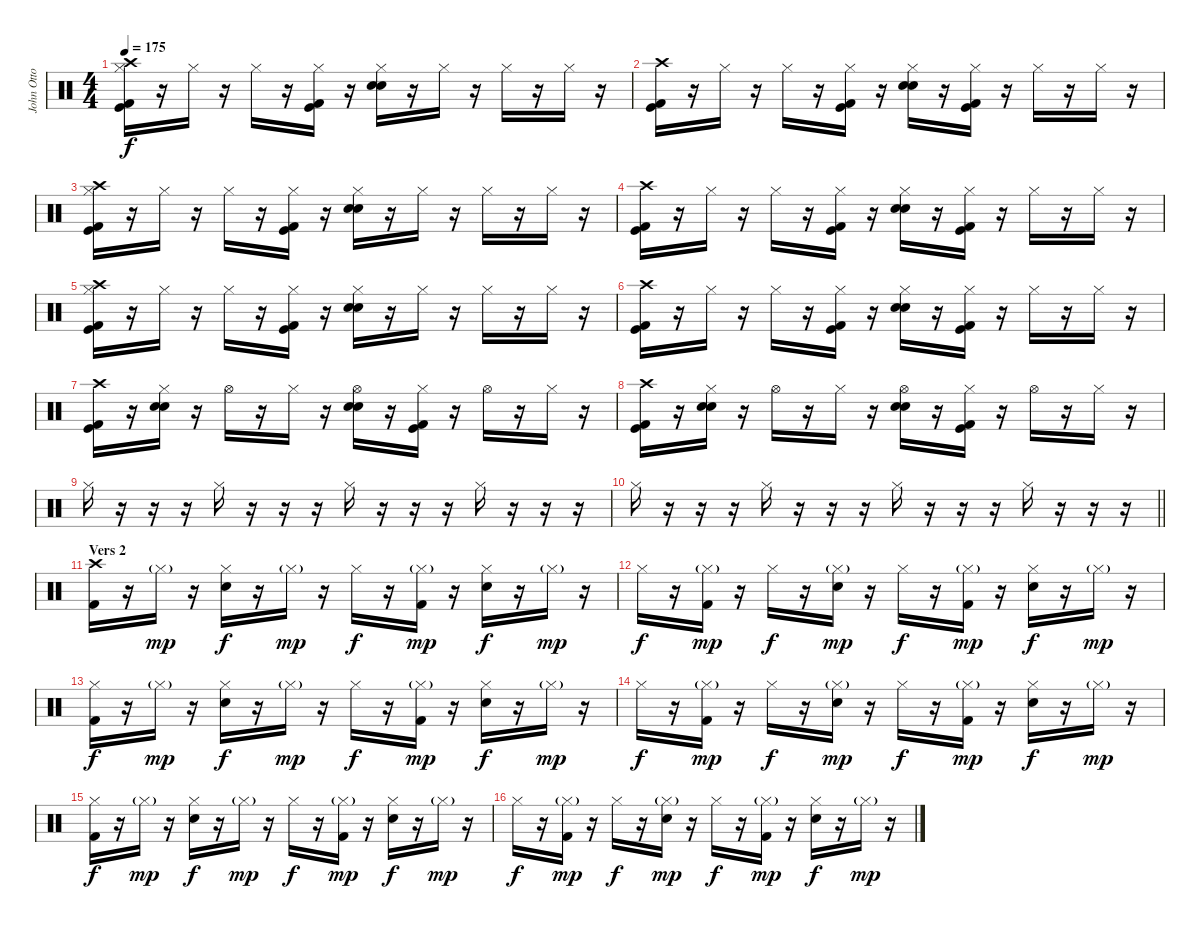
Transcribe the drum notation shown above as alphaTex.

\track ("John Otto" "John Otto") {instrument percussion}
\staff {score}
\articulation defaults
\ts (4 4)
\tempo 175
\clef neutral
\ks c
("Crash high (hit)" "Hi-Hat (closed)" "Kick (hit) 2" "Kick (hit)").16{dy f} r.16 "Hi-Hat (closed)".16 r.16 "Hi-Hat (closed)".16 r.16 ("Hi-Hat (closed)" "Kick (hit) 2" "Kick (hit)").16 r.16 ("Hi-Hat (closed)" "Electric Snare (hit)" "Snare (hit) 2").16 r.16 "Hi-Hat (closed)".16 r.16 "Hi-Hat (closed)".16 r.16 "Hi-Hat (closed)".16 r.16 |
("Crash high (hit)" "Kick (hit) 2" "Kick (hit)").16 r.16 "Hi-Hat (closed)".16 r.16 "Hi-Hat (closed)".16 r.16 ("Hi-Hat (closed)" "Kick (hit) 2" "Kick (hit)").16 r.16 ("Hi-Hat (closed)" "Electric Snare (hit)" "Snare (hit) 2").16 r.16 ("Hi-Hat (closed)" "Kick (hit) 2" "Kick (hit)").16 r.16 "Hi-Hat (closed)".16 r.16 "Hi-Hat (closed)".16 r.16 |
("Crash high (hit)" "Hi-Hat (closed)" "Kick (hit) 2" "Kick (hit)").16 r.16 "Hi-Hat (closed)".16 r.16 "Hi-Hat (closed)".16 r.16 ("Hi-Hat (closed)" "Kick (hit) 2" "Kick (hit)").16 r.16 ("Hi-Hat (closed)" "Electric Snare (hit)" "Snare (hit) 2").16 r.16 "Hi-Hat (closed)".16 r.16 "Hi-Hat (closed)".16 r.16 "Hi-Hat (closed)".16 r.16 |
("Crash high (hit)" "Kick (hit) 2" "Kick (hit)").16 r.16 "Hi-Hat (closed)".16 r.16 "Hi-Hat (closed)".16 r.16 ("Hi-Hat (closed)" "Kick (hit) 2" "Kick (hit)").16 r.16 ("Hi-Hat (closed)" "Electric Snare (hit)" "Snare (hit) 2").16 r.16 ("Hi-Hat (closed)" "Kick (hit) 2" "Kick (hit)").16 r.16 "Hi-Hat (closed)".16 r.16 "Hi-Hat (closed)".16 r.16 |
("Crash high (hit)" "Hi-Hat (closed)" "Kick (hit) 2" "Kick (hit)").16 r.16 "Hi-Hat (closed)".16 r.16 "Hi-Hat (closed)".16 r.16 ("Hi-Hat (closed)" "Kick (hit) 2" "Kick (hit)").16 r.16 ("Hi-Hat (closed)" "Electric Snare (hit)" "Snare (hit) 2").16 r.16 "Hi-Hat (closed)".16 r.16 "Hi-Hat (closed)".16 r.16 "Hi-Hat (closed)".16 r.16 |
("Crash high (hit)" "Kick (hit) 2" "Kick (hit)").16 r.16 "Hi-Hat (closed)".16 r.16 "Hi-Hat (closed)".16 r.16 ("Hi-Hat (closed)" "Kick (hit) 2" "Kick (hit)").16 r.16 ("Hi-Hat (closed)" "Electric Snare (hit)" "Snare (hit) 2").16 r.16 ("Hi-Hat (closed)" "Kick (hit) 2" "Kick (hit)").16 r.16 "Hi-Hat (closed)".16 r.16 "Hi-Hat (closed)".16 r.16 |
("Crash high (hit)" "Kick (hit) 2" "Kick (hit)").16 r.16 ("Hi-Hat (closed)" "Electric Snare (hit)" "Snare (hit) 2").16 r.16 "Hi-Hat (open)".16 r.16 "Hi-Hat (closed)".16 r.16 ("Hi-Hat (open)" "Electric Snare (hit)" "Snare (hit) 2").16 r.16 ("Hi-Hat (closed)" "Kick (hit) 2" "Kick (hit)").16 r.16 "Hi-Hat (open)".16 r.16 "Hi-Hat (closed)".16 r.16 |
("Crash high (hit)" "Kick (hit) 2" "Kick (hit)").16 r.16 ("Hi-Hat (closed)" "Electric Snare (hit)" "Snare (hit) 2").16 r.16 "Hi-Hat (open)".16 r.16 "Hi-Hat (closed)".16 r.16 ("Hi-Hat (open)" "Electric Snare (hit)" "Snare (hit) 2").16 r.16 ("Hi-Hat (closed)" "Kick (hit) 2" "Kick (hit)").16 r.16 "Hi-Hat (open)".16 r.16 "Hi-Hat (closed)".16 r.16 |
"Hi-Hat (closed)".16 r.16 r.16 r.16 "Hi-Hat (closed)".16 r.16 r.16 r.16 "Hi-Hat (closed)".16 r.16 r.16 r.16 "Hi-Hat (closed)".16 r.16 r.16 r.16 |
\barLineRight lightlight "Hi-Hat (closed)".16
r.16 r.16 r.16 "Hi-Hat (closed)".16 r.16 r.16 r.16 "Hi-Hat (closed)".16 r.16 r.16 r.16 "Hi-Hat (closed)".16 r.16 r.16 r.16 |
\section ("" "Vers 2")
("Crash high (hit)" "Kick (hit) 2").16 r.16 "Hi-Hat (closed)"{g}.16{dy mp} r.16 ("Hi-Hat (closed)" "Snare (hit) 2").16{dy f} r.16 "Hi-Hat (closed)"{g}.16{dy mp} r.16 "Hi-Hat (closed)".16{dy f} r.16 ("Hi-Hat (closed)"{g} "Kick (hit) 2").16{dy mp} r.16 ("Hi-Hat (closed)" "Snare (hit) 2").16{dy f} r.16 "Hi-Hat (closed)"{g}.16{dy mp} r.16 |
"Hi-Hat (closed)".16{dy f} r.16 ("Hi-Hat (closed)"{g} "Kick (hit) 2").16{dy mp} r.16 "Hi-Hat (closed)".16{dy f} r.16 ("Hi-Hat (closed)"{g} "Snare (hit) 2").16{dy mp} r.16 "Hi-Hat (closed)".16{dy f} r.16 ("Hi-Hat (closed)"{g} "Kick (hit) 2").16{dy mp} r.16 ("Hi-Hat (closed)" "Snare (hit) 2").16{dy f} r.16 "Hi-Hat (closed)"{g}.16{dy mp} r.16 |
("Hi-Hat (closed)" "Kick (hit) 2").16{dy f} r.16 "Hi-Hat (closed)"{g}.16{dy mp} r.16 ("Hi-Hat (closed)" "Snare (hit) 2").16{dy f} r.16 "Hi-Hat (closed)"{g}.16{dy mp} r.16 "Hi-Hat (closed)".16{dy f} r.16 ("Hi-Hat (closed)"{g} "Kick (hit) 2").16{dy mp} r.16 ("Hi-Hat (closed)" "Snare (hit) 2").16{dy f} r.16 "Hi-Hat (closed)"{g}.16{dy mp} r.16 |
"Hi-Hat (closed)".16{dy f} r.16 ("Hi-Hat (closed)"{g} "Kick (hit) 2").16{dy mp} r.16 "Hi-Hat (closed)".16{dy f} r.16 ("Hi-Hat (closed)"{g} "Snare (hit) 2").16{dy mp} r.16 "Hi-Hat (closed)".16{dy f} r.16 ("Hi-Hat (closed)"{g} "Kick (hit) 2").16{dy mp} r.16 ("Hi-Hat (closed)" "Snare (hit) 2").16{dy f} r.16 "Hi-Hat (closed)"{g}.16{dy mp} r.16 |
("Hi-Hat (closed)" "Kick (hit) 2").16{dy f} r.16 "Hi-Hat (closed)"{g}.16{dy mp} r.16 ("Hi-Hat (closed)" "Snare (hit) 2").16{dy f} r.16 "Hi-Hat (closed)"{g}.16{dy mp} r.16 "Hi-Hat (closed)".16{dy f} r.16 ("Hi-Hat (closed)"{g} "Kick (hit) 2").16{dy mp} r.16 ("Hi-Hat (closed)" "Snare (hit) 2").16{dy f} r.16 "Hi-Hat (closed)"{g}.16{dy mp} r.16 |
"Hi-Hat (closed)".16{dy f} r.16 ("Hi-Hat (closed)"{g} "Kick (hit) 2").16{dy mp} r.16 "Hi-Hat (closed)".16{dy f} r.16 ("Hi-Hat (closed)"{g} "Snare (hit) 2").16{dy mp} r.16 "Hi-Hat (closed)".16{dy f} r.16 ("Hi-Hat (closed)"{g} "Kick (hit) 2").16{dy mp} r.16 ("Hi-Hat (closed)" "Snare (hit) 2").16{dy f} r.16 "Hi-Hat (closed)"{g}.16{dy mp} r.16
